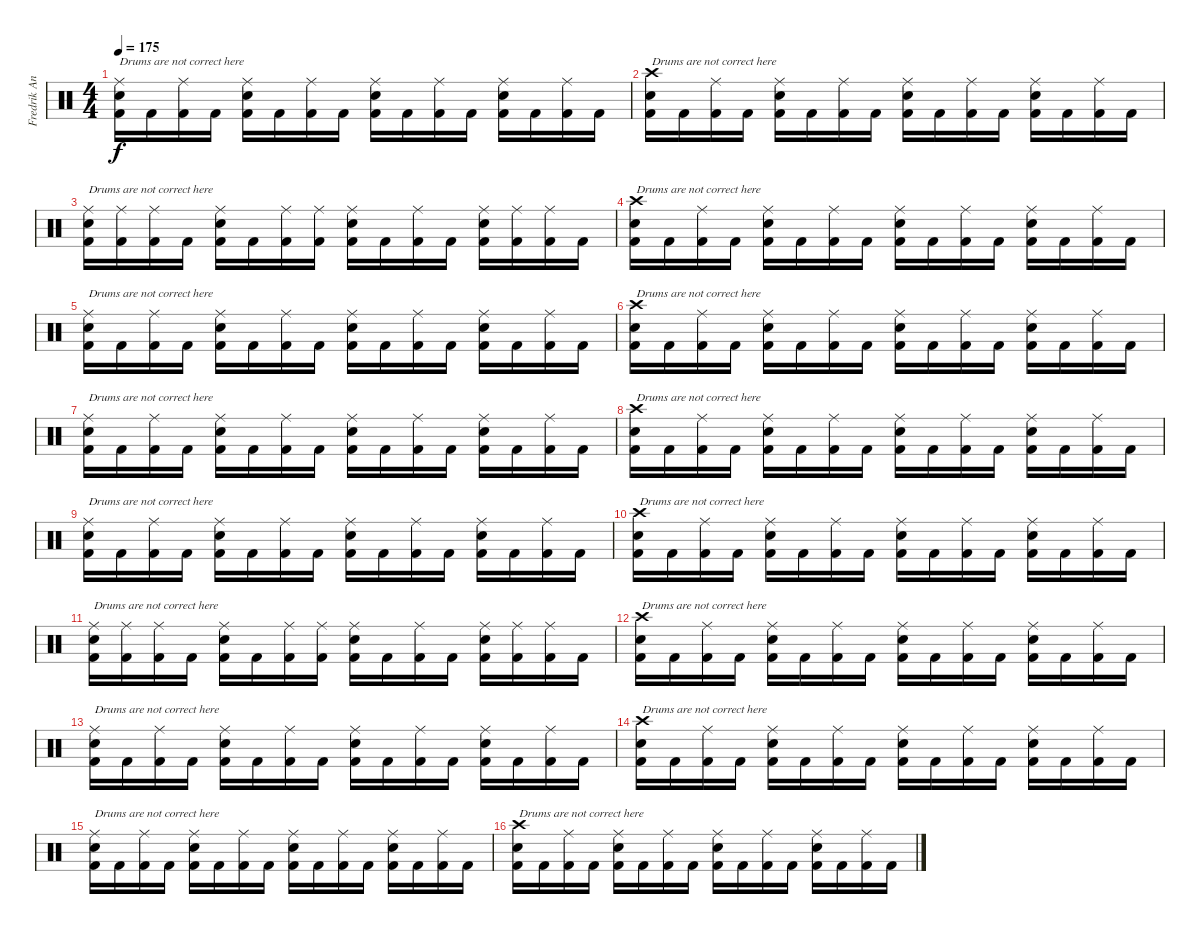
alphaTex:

\track ("Fredrik Andersson" "Fredrik An") {instrument percussion}
\staff {score}
\articulation defaults
\ts (4 4)
\tempo 175
\clef neutral
\ks c
("Ride (middle)" "Electric Snare (hit)" "Kick (hit) 2").16{txt "Drums are not correct here" dy f} "Kick (hit) 2".16 ("Ride (middle)" "Kick (hit) 2").16 "Kick (hit) 2".16 ("Ride (middle)" "Electric Snare (hit)" "Kick (hit) 2").16 "Kick (hit) 2".16 ("Ride (middle)" "Kick (hit) 2").16 "Kick (hit) 2".16 ("Ride (middle)" "Electric Snare (hit)" "Kick (hit) 2").16 "Kick (hit) 2".16 ("Ride (middle)" "Kick (hit) 2").16 "Kick (hit) 2".16 ("Ride (middle)" "Electric Snare (hit)" "Kick (hit) 2").16 "Kick (hit) 2".16 ("Ride (middle)" "Kick (hit) 2").16 "Kick (hit) 2".16 |
("Crash high (hit)" "Electric Snare (hit)" "Kick (hit) 2").16{txt "Drums are not correct here"} "Kick (hit) 2".16 ("Ride (middle)" "Kick (hit) 2").16 "Kick (hit) 2".16 ("Ride (middle)" "Electric Snare (hit)" "Kick (hit) 2").16 "Kick (hit) 2".16 ("Ride (middle)" "Kick (hit) 2").16 "Kick (hit) 2".16 ("Ride (middle)" "Electric Snare (hit)" "Kick (hit) 2").16 "Kick (hit) 2".16 ("Ride (middle)" "Kick (hit) 2").16 "Kick (hit) 2".16 ("Ride (middle)" "Electric Snare (hit)" "Kick (hit) 2").16 "Kick (hit) 2".16 ("Ride (middle)" "Kick (hit) 2").16 "Kick (hit) 2".16 |
("Ride (middle)" "Electric Snare (hit)" "Kick (hit) 2").16{txt "Drums are not correct here"} ("Ride (middle)" "Kick (hit) 2").16 ("Ride (middle)" "Kick (hit) 2").16 "Kick (hit) 2".16 ("Ride (middle)" "Electric Snare (hit)" "Kick (hit) 2").16 "Kick (hit) 2".16 ("Ride (middle)" "Kick (hit) 2").16 ("Ride (middle)" "Kick (hit) 2").16 ("Ride (middle)" "Electric Snare (hit)" "Kick (hit) 2").16 "Kick (hit) 2".16 ("Ride (middle)" "Kick (hit) 2").16 "Kick (hit) 2".16 ("Ride (middle)" "Electric Snare (hit)" "Kick (hit) 2").16 ("Ride (middle)" "Kick (hit) 2").16 ("Ride (middle)" "Kick (hit) 2").16 "Kick (hit) 2".16 |
("Crash high (hit)" "Electric Snare (hit)" "Kick (hit) 2").16{txt "Drums are not correct here"} "Kick (hit) 2".16 ("Ride (middle)" "Kick (hit) 2").16 "Kick (hit) 2".16 ("Ride (middle)" "Electric Snare (hit)" "Kick (hit) 2").16 "Kick (hit) 2".16 ("Ride (middle)" "Kick (hit) 2").16 "Kick (hit) 2".16 ("Ride (middle)" "Electric Snare (hit)" "Kick (hit) 2").16 "Kick (hit) 2".16 ("Ride (middle)" "Kick (hit) 2").16 "Kick (hit) 2".16 ("Ride (middle)" "Electric Snare (hit)" "Kick (hit) 2").16 "Kick (hit) 2".16 ("Ride (middle)" "Kick (hit) 2").16 "Kick (hit) 2".16 |
("Ride (middle)" "Electric Snare (hit)" "Kick (hit) 2").16{txt "Drums are not correct here"} "Kick (hit) 2".16 ("Ride (middle)" "Kick (hit) 2").16 "Kick (hit) 2".16 ("Ride (middle)" "Electric Snare (hit)" "Kick (hit) 2").16 "Kick (hit) 2".16 ("Ride (middle)" "Kick (hit) 2").16 "Kick (hit) 2".16 ("Ride (middle)" "Electric Snare (hit)" "Kick (hit) 2").16 "Kick (hit) 2".16 ("Ride (middle)" "Kick (hit) 2").16 "Kick (hit) 2".16 ("Ride (middle)" "Electric Snare (hit)" "Kick (hit) 2").16 "Kick (hit) 2".16 ("Ride (middle)" "Kick (hit) 2").16 "Kick (hit) 2".16 |
("Crash high (hit)" "Electric Snare (hit)" "Kick (hit) 2").16{txt "Drums are not correct here"} "Kick (hit) 2".16 ("Ride (middle)" "Kick (hit) 2").16 "Kick (hit) 2".16 ("Ride (middle)" "Electric Snare (hit)" "Kick (hit) 2").16 "Kick (hit) 2".16 ("Ride (middle)" "Kick (hit) 2").16 "Kick (hit) 2".16 ("Ride (middle)" "Electric Snare (hit)" "Kick (hit) 2").16 "Kick (hit) 2".16 ("Ride (middle)" "Kick (hit) 2").16 "Kick (hit) 2".16 ("Ride (middle)" "Electric Snare (hit)" "Kick (hit) 2").16 "Kick (hit) 2".16 ("Ride (middle)" "Kick (hit) 2").16 "Kick (hit) 2".16 |
("Ride (middle)" "Electric Snare (hit)" "Kick (hit) 2").16{txt "Drums are not correct here"} "Kick (hit) 2".16 ("Ride (middle)" "Kick (hit) 2").16 "Kick (hit) 2".16 ("Ride (middle)" "Electric Snare (hit)" "Kick (hit) 2").16 "Kick (hit) 2".16 ("Ride (middle)" "Kick (hit) 2").16 "Kick (hit) 2".16 ("Ride (middle)" "Electric Snare (hit)" "Kick (hit) 2").16 "Kick (hit) 2".16 ("Ride (middle)" "Kick (hit) 2").16 "Kick (hit) 2".16 ("Ride (middle)" "Electric Snare (hit)" "Kick (hit) 2").16 "Kick (hit) 2".16 ("Ride (middle)" "Kick (hit) 2").16 "Kick (hit) 2".16 |
("Crash high (hit)" "Electric Snare (hit)" "Kick (hit) 2").16{txt "Drums are not correct here"} "Kick (hit) 2".16 ("Ride (middle)" "Kick (hit) 2").16 "Kick (hit) 2".16 ("Ride (middle)" "Electric Snare (hit)" "Kick (hit) 2").16 "Kick (hit) 2".16 ("Ride (middle)" "Kick (hit) 2").16 "Kick (hit) 2".16 ("Ride (middle)" "Electric Snare (hit)" "Kick (hit) 2").16 "Kick (hit) 2".16 ("Ride (middle)" "Kick (hit) 2").16 "Kick (hit) 2".16 ("Ride (middle)" "Electric Snare (hit)" "Kick (hit) 2").16 "Kick (hit) 2".16 ("Ride (middle)" "Kick (hit) 2").16 "Kick (hit) 2".16 |
("Ride (middle)" "Electric Snare (hit)" "Kick (hit) 2").16{txt "Drums are not correct here"} "Kick (hit) 2".16 ("Ride (middle)" "Kick (hit) 2").16 "Kick (hit) 2".16 ("Ride (middle)" "Electric Snare (hit)" "Kick (hit) 2").16 "Kick (hit) 2".16 ("Ride (middle)" "Kick (hit) 2").16 "Kick (hit) 2".16 ("Ride (middle)" "Electric Snare (hit)" "Kick (hit) 2").16 "Kick (hit) 2".16 ("Ride (middle)" "Kick (hit) 2").16 "Kick (hit) 2".16 ("Ride (middle)" "Electric Snare (hit)" "Kick (hit) 2").16 "Kick (hit) 2".16 ("Ride (middle)" "Kick (hit) 2").16 "Kick (hit) 2".16 |
("Crash high (hit)" "Electric Snare (hit)" "Kick (hit) 2").16{txt "Drums are not correct here"} "Kick (hit) 2".16 ("Ride (middle)" "Kick (hit) 2").16 "Kick (hit) 2".16 ("Ride (middle)" "Electric Snare (hit)" "Kick (hit) 2").16 "Kick (hit) 2".16 ("Ride (middle)" "Kick (hit) 2").16 "Kick (hit) 2".16 ("Ride (middle)" "Electric Snare (hit)" "Kick (hit) 2").16 "Kick (hit) 2".16 ("Ride (middle)" "Kick (hit) 2").16 "Kick (hit) 2".16 ("Ride (middle)" "Electric Snare (hit)" "Kick (hit) 2").16 "Kick (hit) 2".16 ("Ride (middle)" "Kick (hit) 2").16 "Kick (hit) 2".16 |
("Ride (middle)" "Electric Snare (hit)" "Kick (hit) 2").16{txt "Drums are not correct here"} ("Ride (middle)" "Kick (hit) 2").16 ("Ride (middle)" "Kick (hit) 2").16 "Kick (hit) 2".16 ("Ride (middle)" "Electric Snare (hit)" "Kick (hit) 2").16 "Kick (hit) 2".16 ("Ride (middle)" "Kick (hit) 2").16 ("Ride (middle)" "Kick (hit) 2").16 ("Ride (middle)" "Electric Snare (hit)" "Kick (hit) 2").16 "Kick (hit) 2".16 ("Ride (middle)" "Kick (hit) 2").16 "Kick (hit) 2".16 ("Ride (middle)" "Electric Snare (hit)" "Kick (hit) 2").16 ("Ride (middle)" "Kick (hit) 2").16 ("Ride (middle)" "Kick (hit) 2").16 "Kick (hit) 2".16 |
("Crash high (hit)" "Electric Snare (hit)" "Kick (hit) 2").16{txt "Drums are not correct here"} "Kick (hit) 2".16 ("Ride (middle)" "Kick (hit) 2").16 "Kick (hit) 2".16 ("Ride (middle)" "Electric Snare (hit)" "Kick (hit) 2").16 "Kick (hit) 2".16 ("Ride (middle)" "Kick (hit) 2").16 "Kick (hit) 2".16 ("Ride (middle)" "Electric Snare (hit)" "Kick (hit) 2").16 "Kick (hit) 2".16 ("Ride (middle)" "Kick (hit) 2").16 "Kick (hit) 2".16 ("Ride (middle)" "Electric Snare (hit)" "Kick (hit) 2").16 "Kick (hit) 2".16 ("Ride (middle)" "Kick (hit) 2").16 "Kick (hit) 2".16 |
("Ride (middle)" "Electric Snare (hit)" "Kick (hit) 2").16{txt "Drums are not correct here"} "Kick (hit) 2".16 ("Ride (middle)" "Kick (hit) 2").16 "Kick (hit) 2".16 ("Ride (middle)" "Electric Snare (hit)" "Kick (hit) 2").16 "Kick (hit) 2".16 ("Ride (middle)" "Kick (hit) 2").16 "Kick (hit) 2".16 ("Ride (middle)" "Electric Snare (hit)" "Kick (hit) 2").16 "Kick (hit) 2".16 ("Ride (middle)" "Kick (hit) 2").16 "Kick (hit) 2".16 ("Ride (middle)" "Electric Snare (hit)" "Kick (hit) 2").16 "Kick (hit) 2".16 ("Ride (middle)" "Kick (hit) 2").16 "Kick (hit) 2".16 |
("Crash high (hit)" "Electric Snare (hit)" "Kick (hit) 2").16{txt "Drums are not correct here"} "Kick (hit) 2".16 ("Ride (middle)" "Kick (hit) 2").16 "Kick (hit) 2".16 ("Ride (middle)" "Electric Snare (hit)" "Kick (hit) 2").16 "Kick (hit) 2".16 ("Ride (middle)" "Kick (hit) 2").16 "Kick (hit) 2".16 ("Ride (middle)" "Electric Snare (hit)" "Kick (hit) 2").16 "Kick (hit) 2".16 ("Ride (middle)" "Kick (hit) 2").16 "Kick (hit) 2".16 ("Ride (middle)" "Electric Snare (hit)" "Kick (hit) 2").16 "Kick (hit) 2".16 ("Ride (middle)" "Kick (hit) 2").16 "Kick (hit) 2".16 |
("Ride (middle)" "Electric Snare (hit)" "Kick (hit) 2").16{txt "Drums are not correct here"} "Kick (hit) 2".16 ("Ride (middle)" "Kick (hit) 2").16 "Kick (hit) 2".16 ("Ride (middle)" "Electric Snare (hit)" "Kick (hit) 2").16 "Kick (hit) 2".16 ("Ride (middle)" "Kick (hit) 2").16 "Kick (hit) 2".16 ("Ride (middle)" "Electric Snare (hit)" "Kick (hit) 2").16 "Kick (hit) 2".16 ("Ride (middle)" "Kick (hit) 2").16 "Kick (hit) 2".16 ("Ride (middle)" "Electric Snare (hit)" "Kick (hit) 2").16 "Kick (hit) 2".16 ("Ride (middle)" "Kick (hit) 2").16 "Kick (hit) 2".16 |
("Crash high (hit)" "Electric Snare (hit)" "Kick (hit) 2").16{txt "Drums are not correct here"} "Kick (hit) 2".16 ("Ride (middle)" "Kick (hit) 2").16 "Kick (hit) 2".16 ("Ride (middle)" "Electric Snare (hit)" "Kick (hit) 2").16 "Kick (hit) 2".16 ("Ride (middle)" "Kick (hit) 2").16 "Kick (hit) 2".16 ("Ride (middle)" "Electric Snare (hit)" "Kick (hit) 2").16 "Kick (hit) 2".16 ("Ride (middle)" "Kick (hit) 2").16 "Kick (hit) 2".16 ("Ride (middle)" "Electric Snare (hit)" "Kick (hit) 2").16 "Kick (hit) 2".16 ("Ride (middle)" "Kick (hit) 2").16 "Kick (hit) 2".16
